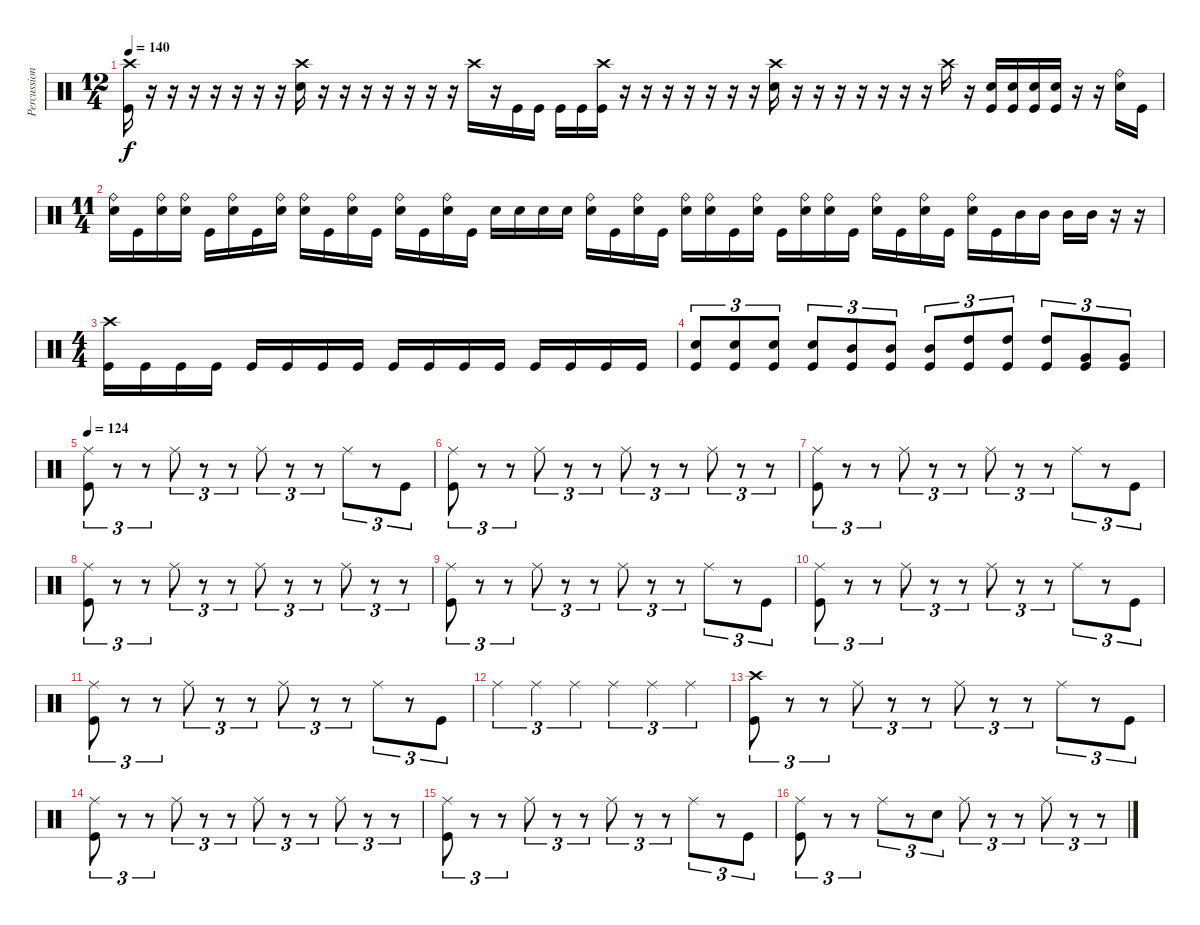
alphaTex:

\track ("Percussion" "Percussion") {instrument percussion}
\staff {score}
\articulation defaults
\ts (12 4)
\tempo 140
\clef neutral
\ks c
("Crash high (hit)" "Kick (hit)").16{dy f} r.16 r.16 r.16 r.16 r.16 r.16 r.16 ("Crash high (hit)" "Snare (hit) 2").16 r.16 r.16 r.16 r.16 r.16 r.16 r.16 "Crash high (hit)".16 r.16 "Kick (hit)".16 "Kick (hit)".16 "Kick (hit)".16 "Kick (hit)".16 ("Crash high (hit)" "Kick (hit)").16 r.16 r.16 r.16 r.16 r.16 r.16 r.16 ("Crash high (hit)" "Snare (hit) 2").16 r.16 r.16 r.16 r.16 r.16 r.16 r.16 "Crash high (hit)".16 r.16 ("Snare (hit) 2" "Kick (hit)").16 ("Snare (hit) 2" "Kick (hit)").16 ("Snare (hit) 2" "Kick (hit)").16 ("Snare (hit) 2" "Kick (hit)").16 r.16 r.16 ("Ride (bell)" "Snare (hit) 2").16 "Kick (hit)".16 |
\ts (11 4)
("Ride (bell)" "Snare (hit) 2").16 "Kick (hit)".16 ("Ride (bell)" "Snare (hit) 2").16 ("Ride (bell)" "Snare (hit) 2").16 "Kick (hit)".16 ("Ride (bell)" "Snare (hit) 2").16 "Kick (hit)".16 ("Ride (bell)" "Snare (hit) 2").16 ("Ride (bell)" "Snare (hit) 2").16 "Kick (hit)".16 ("Ride (bell)" "Snare (hit) 2").16 "Kick (hit)".16 ("Ride (bell)" "Snare (hit) 2").16 "Kick (hit)".16 ("Ride (bell)" "Snare (hit) 2").16 "Kick (hit)".16 "Snare (hit) 2".16 "Snare (hit) 2".16 "Snare (hit) 2".16 "Snare (hit) 2".16 ("Ride (bell)" "Snare (hit) 2").16 "Kick (hit)".16 ("Ride (bell)" "Snare (hit) 2").16 "Kick (hit)".16 ("Ride (bell)" "Snare (hit) 2").16 ("Ride (bell)" "Snare (hit) 2").16 "Kick (hit)".16 ("Ride (bell)" "Snare (hit) 2").16 "Kick (hit)".16 ("Ride (bell)" "Snare (hit) 2").16 ("Ride (bell)" "Snare (hit) 2").16 "Kick (hit)".16 ("Ride (bell)" "Snare (hit) 2").16 "Kick (hit)".16 ("Ride (bell)" "Snare (hit) 2").16 "Kick (hit)".16 ("Ride (bell)" "Snare (hit) 2").16 "Kick (hit)".16 "Mid Tom (hit)".16 "Mid Tom (hit)".16 "Mid Tom (hit)".16 "Mid Tom (hit)".16 r.16 r.16 |
\ts (4 4)
("Crash high (hit)" "Kick (hit)").16 "Kick (hit)".16 "Kick (hit)".16 "Kick (hit)".16 "Kick (hit)".16 "Kick (hit)".16 "Kick (hit)".16 "Kick (hit)".16 "Kick (hit)".16 "Kick (hit)".16 "Kick (hit)".16 "Kick (hit)".16 "Kick (hit)".16 "Kick (hit)".16 "Kick (hit)".16 "Kick (hit)".16 |
("Snare (hit) 2" "Kick (hit)").8{tu (3 2)} ("Snare (hit) 2" "Kick (hit)").8{tu (3 2)} ("Snare (hit) 2" "Kick (hit)").8{tu (3 2)} ("Snare (hit) 2" "Kick (hit)").8{tu (3 2)} ("Mid Tom (hit)" "Kick (hit)").8{tu (3 2)} ("Mid Tom (hit)" "Kick (hit)").8{tu (3 2)} ("Mid Tom (hit)" "Kick (hit)").8{tu (3 2)} ("High Tom (hit)" "Kick (hit)").8{tu (3 2)} ("High Tom (hit)" "Kick (hit)").8{tu (3 2)} ("High Tom (hit)" "Kick (hit)").8{tu (3 2)} ("Very Low Tom (hit)" "Kick (hit)").8{tu (3 2)} ("Very Low Tom (hit)" "Kick (hit)").8{tu (3 2)} |
\tempo 124
("Ride (middle)" "Kick (hit)").8{tu (3 2)} r.8{tu (3 2)} r.8{tu (3 2)} "Ride (middle)".8{tu (3 2)} r.8{tu (3 2)} r.8{tu (3 2)} "Ride (middle)".8{tu (3 2)} r.8{tu (3 2)} r.8{tu (3 2)} "Ride (middle)".8{tu (3 2)} r.8{tu (3 2)} "Kick (hit)".8{tu (3 2)} |
("Ride (middle)" "Kick (hit)").8{tu (3 2)} r.8{tu (3 2)} r.8{tu (3 2)} "Ride (middle)".8{tu (3 2)} r.8{tu (3 2)} r.8{tu (3 2)} "Ride (middle)".8{tu (3 2)} r.8{tu (3 2)} r.8{tu (3 2)} "Ride (middle)".8{tu (3 2)} r.8{tu (3 2)} r.8{tu (3 2)} |
("Ride (middle)" "Kick (hit)").8{tu (3 2)} r.8{tu (3 2)} r.8{tu (3 2)} "Ride (middle)".8{tu (3 2)} r.8{tu (3 2)} r.8{tu (3 2)} "Ride (middle)".8{tu (3 2)} r.8{tu (3 2)} r.8{tu (3 2)} "Ride (middle)".8{tu (3 2)} r.8{tu (3 2)} "Kick (hit)".8{tu (3 2)} |
("Ride (middle)" "Kick (hit)").8{tu (3 2)} r.8{tu (3 2)} r.8{tu (3 2)} "Ride (middle)".8{tu (3 2)} r.8{tu (3 2)} r.8{tu (3 2)} "Ride (middle)".8{tu (3 2)} r.8{tu (3 2)} r.8{tu (3 2)} "Ride (middle)".8{tu (3 2)} r.8{tu (3 2)} r.8{tu (3 2)} |
("Ride (middle)" "Kick (hit)").8{tu (3 2)} r.8{tu (3 2)} r.8{tu (3 2)} "Ride (middle)".8{tu (3 2)} r.8{tu (3 2)} r.8{tu (3 2)} "Ride (middle)".8{tu (3 2)} r.8{tu (3 2)} r.8{tu (3 2)} "Ride (middle)".8{tu (3 2)} r.8{tu (3 2)} "Kick (hit)".8{tu (3 2)} |
("Ride (middle)" "Kick (hit)").8{tu (3 2)} r.8{tu (3 2)} r.8{tu (3 2)} "Ride (middle)".8{tu (3 2)} r.8{tu (3 2)} r.8{tu (3 2)} "Ride (middle)".8{tu (3 2)} r.8{tu (3 2)} r.8{tu (3 2)} "Ride (middle)".8{tu (3 2)} r.8{tu (3 2)} "Kick (hit)".8{tu (3 2)} |
("Ride (middle)" "Kick (hit)").8{tu (3 2)} r.8{tu (3 2)} r.8{tu (3 2)} "Ride (middle)".8{tu (3 2)} r.8{tu (3 2)} r.8{tu (3 2)} "Ride (middle)".8{tu (3 2)} r.8{tu (3 2)} r.8{tu (3 2)} "Ride (middle)".8{tu (3 2)} r.8{tu (3 2)} "Kick (hit)".8{tu (3 2)} |
"Ride (middle)".4{tu (3 2)} "Ride (middle)".4{tu (3 2)} "Ride (middle)".4{tu (3 2)} "Ride (middle)".4{tu (3 2)} "Ride (middle)".4{tu (3 2)} "Ride (middle)".4{tu (3 2)} |
("Crash high (hit)" "Kick (hit)").8{tu (3 2)} r.8{tu (3 2)} r.8{tu (3 2)} "Ride (middle)".8{tu (3 2)} r.8{tu (3 2)} r.8{tu (3 2)} "Ride (middle)".8{tu (3 2)} r.8{tu (3 2)} r.8{tu (3 2)} "Ride (middle)".8{tu (3 2)} r.8{tu (3 2)} "Kick (hit)".8{tu (3 2)} |
("Ride (middle)" "Kick (hit)").8{tu (3 2)} r.8{tu (3 2)} r.8{tu (3 2)} "Ride (middle)".8{tu (3 2)} r.8{tu (3 2)} r.8{tu (3 2)} "Ride (middle)".8{tu (3 2)} r.8{tu (3 2)} r.8{tu (3 2)} "Ride (middle)".8{tu (3 2)} r.8{tu (3 2)} r.8{tu (3 2)} |
("Ride (middle)" "Kick (hit)").8{tu (3 2)} r.8{tu (3 2)} r.8{tu (3 2)} "Ride (middle)".8{tu (3 2)} r.8{tu (3 2)} r.8{tu (3 2)} "Ride (middle)".8{tu (3 2)} r.8{tu (3 2)} r.8{tu (3 2)} "Ride (middle)".8{tu (3 2)} r.8{tu (3 2)} "Kick (hit)".8{tu (3 2)} |
("Ride (middle)" "Kick (hit)").8{tu (3 2)} r.8{tu (3 2)} r.8{tu (3 2)} "Ride (middle)".8{tu (3 2)} r.8{tu (3 2)} "Snare (hit) 2".8{tu (3 2)} "Ride (middle)".8{tu (3 2)} r.8{tu (3 2)} r.8{tu (3 2)} "Ride (middle)".8{tu (3 2)} r.8{tu (3 2)} r.8{tu (3 2)}
